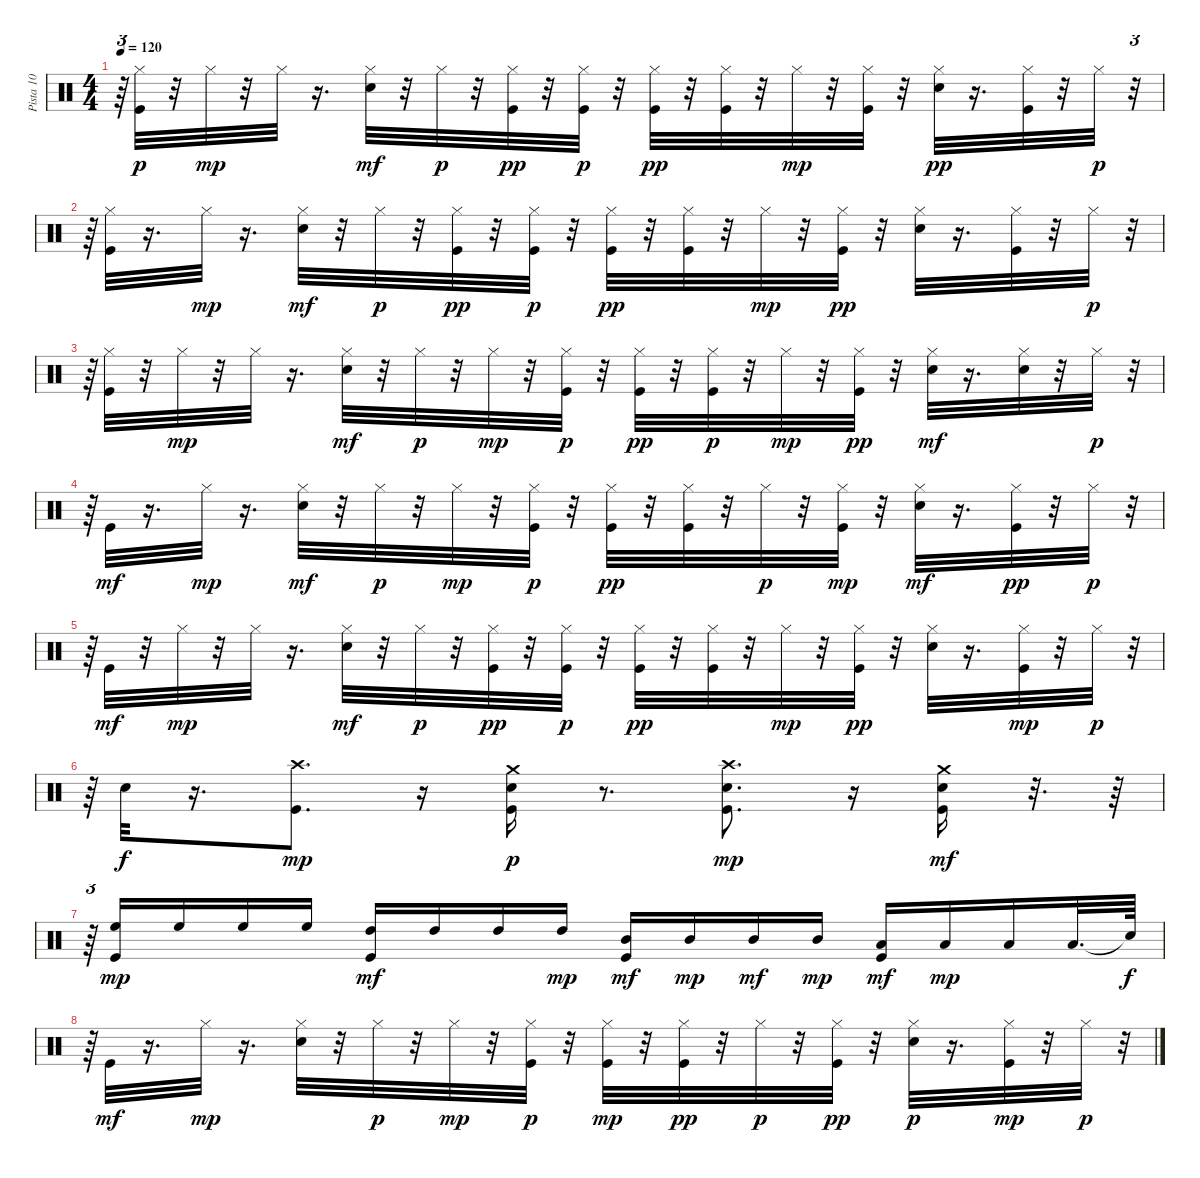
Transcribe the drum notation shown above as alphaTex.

\track ("Pista 10" "Pista 10") {instrument percussion}
\staff {score}
\articulation defaults
\ts (4 4)
\tempo 120
\clef neutral
\ks c
r.64{tu (3 2) dy p} ("Kick (hit)" "Hi-Hat (closed)").32 r.32 "Hi-Hat (closed)".32{dy mp} r.32 "Hi-Hat (closed)".32 r.16{d} ("Hi-Hat (closed)" "Snare (hit) 2").32{dy mf} r.32 "Hi-Hat (closed)".32{dy p} r.32 ("Hi-Hat (closed)" "Kick (hit)").32{dy pp} r.32 ("Kick (hit)" "Hi-Hat (closed)").32{dy p} r.32 ("Kick (hit)" "Hi-Hat (closed)").32{dy pp} r.32 ("Hi-Hat (closed)" "Kick (hit)").32 r.32 "Hi-Hat (closed)".32{dy mp} r.32 ("Hi-Hat (closed)" "Kick (hit)").32 r.32 ("Snare (hit) 2" "Hi-Hat (closed)").32{dy pp} r.16{d} ("Hi-Hat (closed)" "Kick (hit)").32 r.32 "Hi-Hat (closed)".32{dy p} r.32{tu (3 2)} |
r.64{tu (3 2)} ("Kick (hit)" "Hi-Hat (closed)").32 r.16{d} "Hi-Hat (closed)".32{dy mp} r.16{d} ("Hi-Hat (closed)" "Snare (hit) 2").32{dy mf} r.32 "Hi-Hat (closed)".32{dy p} r.32 ("Hi-Hat (closed)" "Kick (hit)").32{dy pp} r.32 ("Kick (hit)" "Hi-Hat (closed)").32{dy p} r.32 ("Kick (hit)" "Hi-Hat (closed)").32{dy pp} r.32 ("Hi-Hat (closed)" "Kick (hit)").32 r.32 "Hi-Hat (closed)".32{dy mp} r.32 ("Hi-Hat (closed)" "Kick (hit)").32{dy pp} r.32 ("Snare (hit) 2" "Hi-Hat (closed)").32 r.16{d} ("Hi-Hat (closed)" "Kick (hit)").32 r.32 "Hi-Hat (closed)".32{dy p} r.32{tu (3 2)} |
r.64{tu (3 2)} ("Kick (hit)" "Hi-Hat (closed)").32 r.32 "Hi-Hat (closed)".32{dy mp} r.32 "Hi-Hat (closed)".32 r.16{d} ("Hi-Hat (closed)" "Snare (hit) 2").32{dy mf} r.32 "Hi-Hat (closed)".32{dy p} r.32 "Hi-Hat (closed)".32{dy mp} r.32 ("Kick (hit)" "Hi-Hat (closed)").32{dy p} r.32 ("Kick (hit)" "Hi-Hat (closed)").32{dy pp} r.32 ("Kick (hit)" "Hi-Hat (closed)").32{dy p} r.32 "Hi-Hat (closed)".32{dy mp} r.32 ("Kick (hit)" "Hi-Hat (closed)").32{dy pp} r.32 ("Hi-Hat (closed)" "Snare (hit) 2").32{dy mf} r.16{d} ("Hi-Hat (closed)" "Snare (hit) 2").32 r.32 "Hi-Hat (closed)".32{dy p} r.32{tu (3 2)} |
r.64{tu (3 2)} "Kick (hit)".32{dy mf} r.16{d} "Hi-Hat (closed)".32{dy mp} r.16{d} ("Hi-Hat (closed)" "Snare (hit) 2").32{dy mf} r.32 "Hi-Hat (closed)".32{dy p} r.32 "Hi-Hat (closed)".32{dy mp} r.32 ("Kick (hit)" "Hi-Hat (closed)").32{dy p} r.32 ("Kick (hit)" "Hi-Hat (closed)").32{dy pp} r.32 ("Hi-Hat (closed)" "Kick (hit)").32 r.32 "Hi-Hat (closed)".32{dy p} r.32 ("Hi-Hat (closed)" "Kick (hit)").32{dy mp} r.32 ("Hi-Hat (closed)" "Snare (hit) 2").32{dy mf} r.16{d} ("Hi-Hat (closed)" "Kick (hit)").32{dy pp} r.32 "Hi-Hat (closed)".32{dy p} r.32{tu (3 2)} |
r.64{tu (3 2)} "Kick (hit)".32{dy mf} r.32 "Hi-Hat (closed)".32{dy mp} r.32 "Hi-Hat (closed)".32 r.16{d} ("Hi-Hat (closed)" "Snare (hit) 2").32{dy mf} r.32 "Hi-Hat (closed)".32{dy p} r.32 ("Hi-Hat (closed)" "Kick (hit)").32{dy pp} r.32 ("Kick (hit)" "Hi-Hat (closed)").32{dy p} r.32 ("Kick (hit)" "Hi-Hat (closed)").32{dy pp} r.32 ("Hi-Hat (closed)" "Kick (hit)").32 r.32 "Hi-Hat (closed)".32{dy mp} r.32 ("Hi-Hat (closed)" "Kick (hit)").32{dy pp} r.32 ("Snare (hit) 2" "Hi-Hat (closed)").32 r.16{d} ("Kick (hit)" "Hi-Hat (closed)").32{dy mp} r.32 "Hi-Hat (closed)".32{dy p} r.32{tu (3 2)} |
r.64{tu (3 2)} "Snare (hit) 2".32{dy f} r.16{d} ("Kick (hit)" "Crash high (hit)").8{d dy mp} r.16 ("Kick (hit)" "Crash medium (hit)" "Snare (hit) 2").16{dy p} r.8{d} ("Kick (hit)" "Crash high (hit)" "Snare (hit) 2").8{d dy mp} r.16 ("Kick (hit)" "Crash medium (hit)" "Snare (hit) 2").16{dy mf} r.32{d} r.64 |
r.64{tu (3 2)} ("Kick (hit)" "High Floor Tom (hit)").16{dy mp} "High Floor Tom (hit)".16 "High Floor Tom (hit)".16 "High Floor Tom (hit)".16 ("Kick (hit)" "High Tom (hit)").16{dy mf} "High Tom (hit)".16 "High Tom (hit)".16 "High Tom (hit)".16{dy mp} ("Kick (hit)" "Mid Tom (hit)").16{dy mf} "Mid Tom (hit)".16{dy mp} "Mid Tom (hit)".16{dy mf} "Mid Tom (hit)".16{dy mp} ("Kick (hit)" "Low Tom (hit)").16{dy mf} "Low Tom (hit)".16{dy mp} "Low Tom (hit)".16 "Low Tom (hit)".32{d} "Snare (hit)"{t}.64{dy f} |
r.64{tu (3 2)} "Kick (hit)".32{dy mf} r.16{d} "Hi-Hat (closed)".32{dy mp} r.16{d} ("Hi-Hat (closed)" "Snare (hit) 2").32 r.32 "Hi-Hat (closed)".32{dy p} r.32 "Hi-Hat (closed)".32{dy mp} r.32 ("Kick (hit)" "Hi-Hat (closed)").32{dy p} r.32 ("Kick (hit)" "Hi-Hat (closed)").32{dy mp} r.32 ("Hi-Hat (closed)" "Kick (hit)").32{dy pp} r.32 "Hi-Hat (closed)".32{dy p} r.32 ("Hi-Hat (closed)" "Kick (hit)").32{dy pp} r.32 ("Hi-Hat (closed)" "Snare (hit) 2").32{dy p} r.16{d} ("Hi-Hat (closed)" "Kick (hit)").32{dy mp} r.32 "Hi-Hat (closed)".32{dy p} r.32{tu (3 2)}
